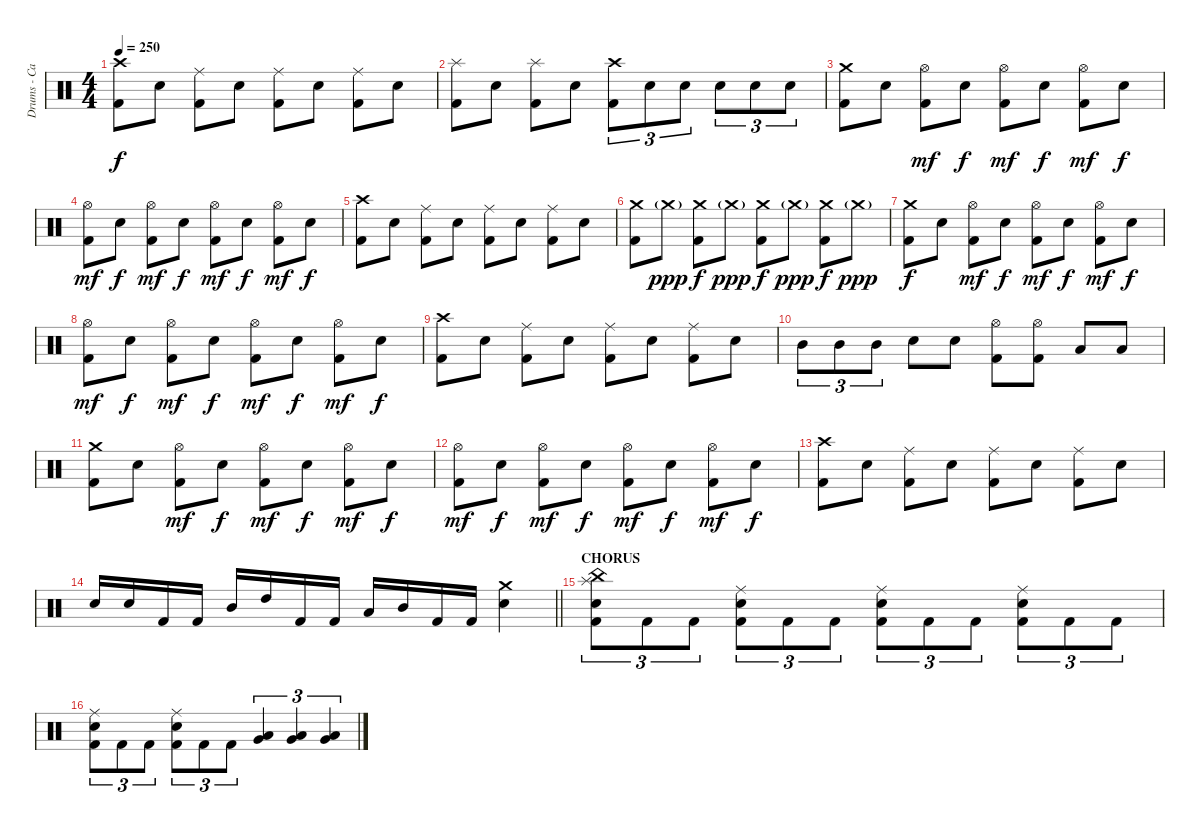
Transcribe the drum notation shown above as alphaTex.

\track ("Drums - Carlos Cruz" "Drums - Ca") {instrument percussion}
\staff {score}
\articulation defaults
\ts (4 4)
\tempo 250
\clef neutral
\ks c
("Crash high (hit)" "Kick (hit) 2").8{dy f} "Snare (hit) 2".8 ("Ride (middle)" "Kick (hit) 2").8 "Snare (hit) 2".8 ("Ride (middle)" "Kick (hit) 2").8 "Snare (hit) 2".8 ("Ride (middle)" "Kick (hit) 2").8 "Snare (hit) 2".8 |
("Splash (hit)" "Kick (hit) 2").8 "Snare (hit) 2".8 ("Splash (hit)" "Kick (hit) 2").8 "Snare (hit) 2".8 ("Crash high (hit)" "Kick (hit) 2").8{tu (3 2)} "Snare (hit) 2".8{tu (3 2)} "Snare (hit) 2".8{tu (3 2)} "Snare (hit) 2".8{tu (3 2)} "Snare (hit) 2".8{tu (3 2)} "Snare (hit) 2".8{tu (3 2)} |
("Crash medium (hit)" "Kick (hit) 2").8 "Snare (hit) 2".8 ("Hi-Hat (open)" "Kick (hit) 2").8{dy mf} "Snare (hit) 2".8{dy f} ("Hi-Hat (open)" "Kick (hit) 2").8{dy mf} "Snare (hit) 2".8{dy f} ("Hi-Hat (open)" "Kick (hit) 2").8{dy mf} "Snare (hit) 2".8{dy f} |
("Hi-Hat (open)" "Kick (hit) 2").8{dy mf} "Snare (hit) 2".8{dy f} ("Hi-Hat (open)" "Kick (hit) 2").8{dy mf} "Snare (hit) 2".8{dy f} ("Hi-Hat (open)" "Kick (hit) 2").8{dy mf} "Snare (hit) 2".8{dy f} ("Hi-Hat (open)" "Kick (hit) 2").8{dy mf} "Snare (hit) 2".8{dy f} |
("Crash high (hit)" "Kick (hit) 2").8 "Snare (hit) 2".8 ("Ride (middle)" "Kick (hit) 2").8 "Snare (hit) 2".8 ("Ride (middle)" "Kick (hit) 2").8 "Snare (hit) 2".8 ("Ride (middle)" "Kick (hit) 2").8 "Snare (hit) 2".8 |
("Crash medium (hit)" "Kick (hit) 2").8 "Crash medium (hit)"{g}.8{dy ppp} ("Crash medium (hit)" "Kick (hit) 2").8{dy f} "Crash medium (hit)"{g}.8{dy ppp} ("Crash medium (hit)" "Kick (hit) 2").8{dy f} "Crash medium (hit)"{g}.8{dy ppp} ("Crash medium (hit)" "Kick (hit) 2").8{dy f} "Crash medium (hit)"{g}.8{dy ppp} |
("Crash medium (hit)" "Kick (hit) 2").8{dy f} "Snare (hit) 2".8 ("Hi-Hat (open)" "Kick (hit) 2").8{dy mf} "Snare (hit) 2".8{dy f} ("Hi-Hat (open)" "Kick (hit) 2").8{dy mf} "Snare (hit) 2".8{dy f} ("Hi-Hat (open)" "Kick (hit) 2").8{dy mf} "Snare (hit) 2".8{dy f} |
("Hi-Hat (open)" "Kick (hit) 2").8{dy mf} "Snare (hit) 2".8{dy f} ("Hi-Hat (open)" "Kick (hit) 2").8{dy mf} "Snare (hit) 2".8{dy f} ("Hi-Hat (open)" "Kick (hit) 2").8{dy mf} "Snare (hit) 2".8{dy f} ("Hi-Hat (open)" "Kick (hit) 2").8{dy mf} "Snare (hit) 2".8{dy f} |
("Crash high (hit)" "Kick (hit) 2").8 "Snare (hit) 2".8 ("Ride (middle)" "Kick (hit) 2").8 "Snare (hit) 2".8 ("Ride (middle)" "Kick (hit) 2").8 "Snare (hit) 2".8 ("Ride (middle)" "Kick (hit) 2").8 "Snare (hit) 2".8 |
"Mid Tom (hit)".8{tu (3 2)} "Mid Tom (hit)".8{tu (3 2)} "Mid Tom (hit)".8{tu (3 2)} "Snare (hit) 2".8 "Snare (hit) 2".8 ("Hi-Hat (open)" "Kick (hit) 2").8 ("Hi-Hat (open)" "Kick (hit) 2").8 "Low Tom (hit)".8 "Low Tom (hit)".8 |
("Crash medium (hit)" "Kick (hit) 2").8 "Snare (hit) 2".8 ("Hi-Hat (open)" "Kick (hit) 2").8{dy mf} "Snare (hit) 2".8{dy f} ("Hi-Hat (open)" "Kick (hit) 2").8{dy mf} "Snare (hit) 2".8{dy f} ("Hi-Hat (open)" "Kick (hit) 2").8{dy mf} "Snare (hit) 2".8{dy f} |
("Hi-Hat (open)" "Kick (hit) 2").8{dy mf} "Snare (hit) 2".8{dy f} ("Hi-Hat (open)" "Kick (hit) 2").8{dy mf} "Snare (hit) 2".8{dy f} ("Hi-Hat (open)" "Kick (hit) 2").8{dy mf} "Snare (hit) 2".8{dy f} ("Hi-Hat (open)" "Kick (hit) 2").8{dy mf} "Snare (hit) 2".8{dy f} |
("Crash high (hit)" "Kick (hit) 2").8 "Snare (hit) 2".8 ("Ride (middle)" "Kick (hit) 2").8 "Snare (hit) 2".8 ("Ride (middle)" "Kick (hit) 2").8 "Snare (hit) 2".8 ("Ride (middle)" "Kick (hit) 2").8 "Snare (hit) 2".8 |
\barLineRight lightlight "Snare (hit) 2".16 "Snare (hit) 2".16 "Kick (hit) 2".16 "Kick (hit) 2".16 "Mid Tom (hit)".16 "High Tom (hit)".16 "Kick (hit) 2".16 "Kick (hit) 2".16 "Low Tom (hit)".16 "Mid Tom (hit)".16 "Kick (hit) 2".16 "Kick (hit) 2".16
("Crash medium (hit)" "Snare (hit) 2").4 |
\section ("" "CHORUS")
("China (hit)" "Splash (hit)" "Snare (hit) 2" "Kick (hit) 2").8{tu (3 2)} "Kick (hit) 2".8{tu (3 2)} "Kick (hit) 2".8{tu (3 2)} ("Ride (middle)" "Snare (hit) 2" "Kick (hit) 2").8{tu (3 2)} "Kick (hit) 2".8{tu (3 2)} "Kick (hit) 2".8{tu (3 2)} ("Ride (middle)" "Snare (hit) 2" "Kick (hit) 2").8{tu (3 2)} "Kick (hit) 2".8{tu (3 2)} "Kick (hit) 2".8{tu (3 2)} ("Ride (middle)" "Snare (hit) 2" "Kick (hit) 2").8{tu (3 2)} "Kick (hit) 2".8{tu (3 2)} "Kick (hit) 2".8{tu (3 2)} |
("Ride (middle)" "Snare (hit) 2" "Kick (hit) 2").8{tu (3 2)} "Kick (hit) 2".8{tu (3 2)} "Kick (hit) 2".8{tu (3 2)} ("Ride (middle)" "Snare (hit) 2" "Kick (hit) 2").8{tu (3 2)} "Kick (hit) 2".8{tu (3 2)} "Kick (hit) 2".8{tu (3 2)} ("Low Tom (hit)" "Very Low Tom (hit)").4{tu (3 2)} ("Low Tom (hit)" "Very Low Tom (hit)").4{tu (3 2)} ("Low Tom (hit)" "Very Low Tom (hit)").4{tu (3 2)}
